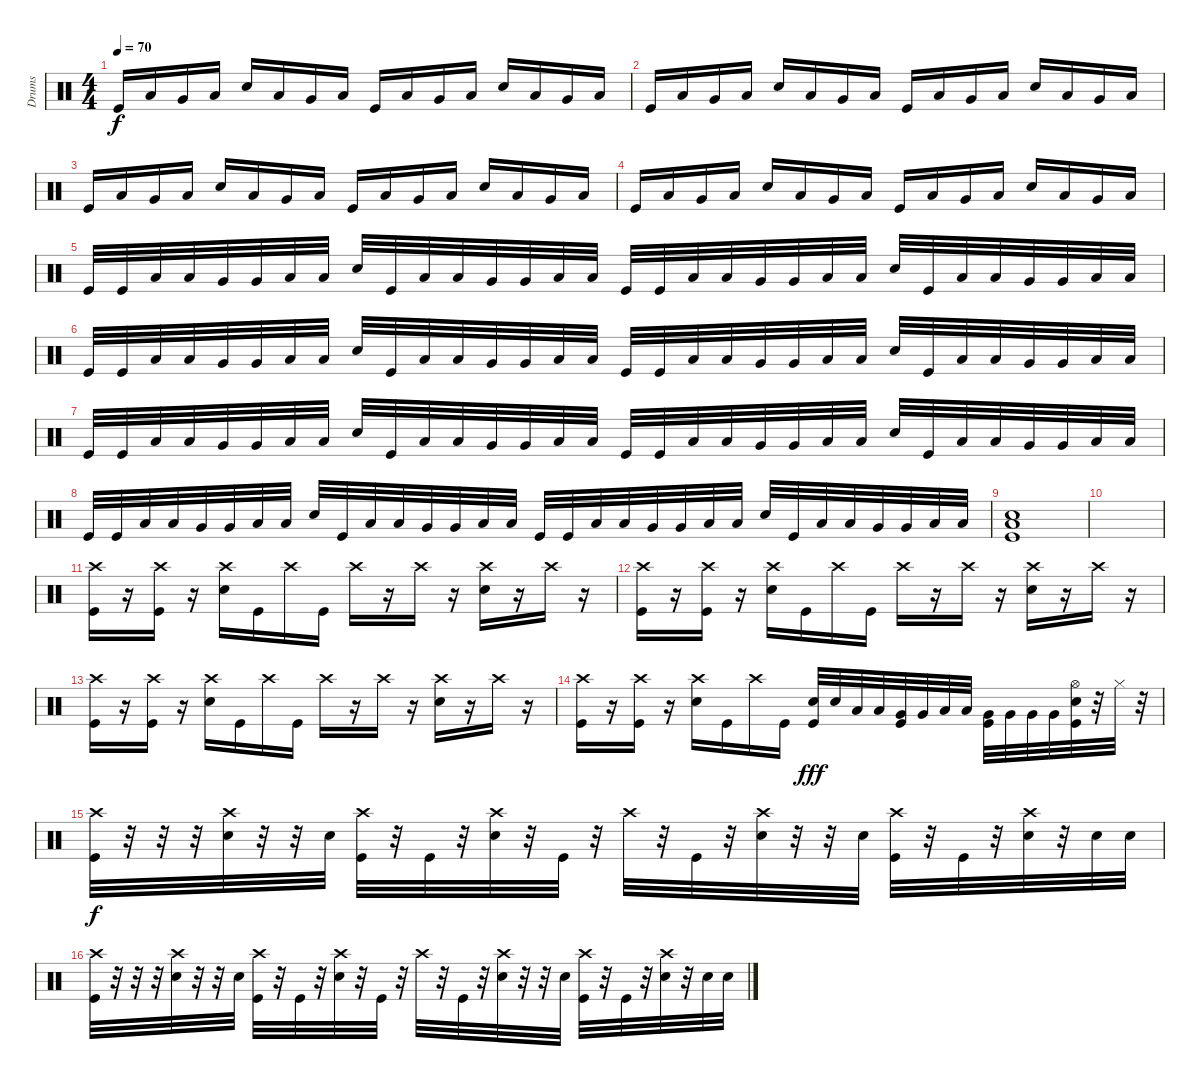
\track ("Drums" "Drums") {instrument percussion}
\staff {score}
\articulation defaults
\ts (4 4)
\tempo 70
\clef neutral
\ks c "Kick (hit)".16{dy f} "Low Tom (hit)".16 "Very Low Tom (hit)".16 "Low Floor Tom (hit)".16 "Electric Snare (hit)".16 "Low Tom (hit)".16 "Very Low Tom (hit)".16 "Low Floor Tom (hit)".16 "Kick (hit)".16 "Low Tom (hit)".16 "Very Low Tom (hit)".16 "Low Floor Tom (hit)".16 "Electric Snare (hit)".16 "Low Tom (hit)".16 "Very Low Tom (hit)".16 "Low Floor Tom (hit)".16
|
"Kick (hit)".16 "Low Tom (hit)".16 "Very Low Tom (hit)".16 "Low Floor Tom (hit)".16 "Electric Snare (hit)".16 "Low Tom (hit)".16 "Very Low Tom (hit)".16 "Low Floor Tom (hit)".16 "Kick (hit)".16 "Low Tom (hit)".16 "Very Low Tom (hit)".16 "Low Floor Tom (hit)".16 "Electric Snare (hit)".16 "Low Tom (hit)".16 "Very Low Tom (hit)".16 "Low Floor Tom (hit)".16 |
"Kick (hit)".16 "Low Tom (hit)".16 "Very Low Tom (hit)".16 "Low Floor Tom (hit)".16 "Electric Snare (hit)".16 "Low Tom (hit)".16 "Very Low Tom (hit)".16 "Low Floor Tom (hit)".16 "Kick (hit)".16 "Low Tom (hit)".16 "Very Low Tom (hit)".16 "Low Floor Tom (hit)".16 "Electric Snare (hit)".16 "Low Tom (hit)".16 "Very Low Tom (hit)".16 "Low Floor Tom (hit)".16 |
"Kick (hit)".16 "Low Tom (hit)".16 "Very Low Tom (hit)".16 "Low Floor Tom (hit)".16 "Electric Snare (hit)".16 "Low Tom (hit)".16 "Very Low Tom (hit)".16 "Low Floor Tom (hit)".16 "Kick (hit)".16 "Low Tom (hit)".16 "Very Low Tom (hit)".16 "Low Floor Tom (hit)".16 "Electric Snare (hit)".16 "Low Tom (hit)".16 "Very Low Tom (hit)".16 "Low Floor Tom (hit)".16 |
"Kick (hit)".32 "Kick (hit)".32 "Low Tom (hit)".32 "Low Tom (hit)".32 "Very Low Tom (hit)".32 "Very Low Tom (hit)".32 "Low Floor Tom (hit)".32 "Low Floor Tom (hit)".32 "Electric Snare (hit)".32 "Kick (hit)".32 "Low Tom (hit)".32 "Low Tom (hit)".32 "Very Low Tom (hit)".32 "Very Low Tom (hit)".32 "Low Floor Tom (hit)".32 "Low Floor Tom (hit)".32 "Kick (hit)".32 "Kick (hit)".32 "Low Tom (hit)".32 "Low Tom (hit)".32 "Very Low Tom (hit)".32 "Very Low Tom (hit)".32 "Low Floor Tom (hit)".32 "Low Floor Tom (hit)".32 "Electric Snare (hit)".32 "Kick (hit)".32 "Low Tom (hit)".32 "Low Tom (hit)".32 "Very Low Tom (hit)".32 "Very Low Tom (hit)".32 "Low Floor Tom (hit)".32 "Low Floor Tom (hit)".32 |
"Kick (hit)".32 "Kick (hit)".32 "Low Tom (hit)".32 "Low Tom (hit)".32 "Very Low Tom (hit)".32 "Very Low Tom (hit)".32 "Low Floor Tom (hit)".32 "Low Floor Tom (hit)".32 "Electric Snare (hit)".32 "Kick (hit)".32 "Low Tom (hit)".32 "Low Tom (hit)".32 "Very Low Tom (hit)".32 "Very Low Tom (hit)".32 "Low Floor Tom (hit)".32 "Low Floor Tom (hit)".32 "Kick (hit)".32 "Kick (hit)".32 "Low Tom (hit)".32 "Low Tom (hit)".32 "Very Low Tom (hit)".32 "Very Low Tom (hit)".32 "Low Floor Tom (hit)".32 "Low Floor Tom (hit)".32 "Electric Snare (hit)".32 "Kick (hit)".32 "Low Tom (hit)".32 "Low Tom (hit)".32 "Very Low Tom (hit)".32 "Very Low Tom (hit)".32 "Low Floor Tom (hit)".32 "Low Floor Tom (hit)".32 |
"Kick (hit)".32 "Kick (hit)".32 "Low Tom (hit)".32 "Low Tom (hit)".32 "Very Low Tom (hit)".32 "Very Low Tom (hit)".32 "Low Floor Tom (hit)".32 "Low Floor Tom (hit)".32 "Electric Snare (hit)".32 "Kick (hit)".32 "Low Tom (hit)".32 "Low Tom (hit)".32 "Very Low Tom (hit)".32 "Very Low Tom (hit)".32 "Low Floor Tom (hit)".32 "Low Floor Tom (hit)".32 "Kick (hit)".32 "Kick (hit)".32 "Low Tom (hit)".32 "Low Tom (hit)".32 "Very Low Tom (hit)".32 "Very Low Tom (hit)".32 "Low Floor Tom (hit)".32 "Low Floor Tom (hit)".32 "Electric Snare (hit)".32 "Kick (hit)".32 "Low Tom (hit)".32 "Low Tom (hit)".32 "Very Low Tom (hit)".32 "Very Low Tom (hit)".32 "Low Floor Tom (hit)".32 "Low Floor Tom (hit)".32 |
"Kick (hit)".32 "Kick (hit)".32 "Low Tom (hit)".32 "Low Tom (hit)".32 "Very Low Tom (hit)".32 "Very Low Tom (hit)".32 "Low Floor Tom (hit)".32 "Low Floor Tom (hit)".32 "Electric Snare (hit)".32 "Kick (hit)".32 "Low Tom (hit)".32 "Low Tom (hit)".32 "Very Low Tom (hit)".32 "Very Low Tom (hit)".32 "Low Floor Tom (hit)".32 "Low Floor Tom (hit)".32 "Kick (hit)".32 "Kick (hit)".32 "Low Tom (hit)".32 "Low Tom (hit)".32 "Very Low Tom (hit)".32 "Very Low Tom (hit)".32 "Low Floor Tom (hit)".32 "Low Floor Tom (hit)".32 "Electric Snare (hit)".32 "Kick (hit)".32 "Low Tom (hit)".32 "Low Tom (hit)".32 "Very Low Tom (hit)".32 "Very Low Tom (hit)".32 "Low Floor Tom (hit)".32 "Low Floor Tom (hit)".32 |
("Electric Snare (hit)" "Low Floor Tom (hit)" "Kick (hit)").1 |
|
("Crash high (hit)" "Kick (hit)").16 r.16 ("Crash high (hit)" "Kick (hit)").16 r.16 ("Crash high (hit)" "Electric Snare (hit)").16 "Kick (hit)".16 "Crash high (hit)".16 "Kick (hit)".16 "Crash high (hit)".16 r.16 "Crash high (hit)".16 r.16 ("Crash high (hit)" "Electric Snare (hit)").16 r.16 "Crash high (hit)".16 r.16 |
("Crash high (hit)" "Kick (hit)").16 r.16 ("Crash high (hit)" "Kick (hit)").16 r.16 ("Crash high (hit)" "Electric Snare (hit)").16 "Kick (hit)".16 "Crash high (hit)".16 "Kick (hit)".16 "Crash high (hit)".16 r.16 "Crash high (hit)".16 r.16 ("Crash high (hit)" "Electric Snare (hit)").16 r.16 "Crash high (hit)".16 r.16 |
("Crash high (hit)" "Kick (hit)").16 r.16 ("Crash high (hit)" "Kick (hit)").16 r.16 ("Crash high (hit)" "Electric Snare (hit)").16 "Kick (hit)".16 "Crash high (hit)".16 "Kick (hit)".16 "Crash high (hit)".16 r.16 "Crash high (hit)".16 r.16 ("Crash high (hit)" "Electric Snare (hit)").16 r.16 "Crash high (hit)".16 r.16 |
("Crash high (hit)" "Kick (hit)").16 r.16 ("Crash high (hit)" "Kick (hit)").16 r.16 ("Crash high (hit)" "Electric Snare (hit)").16 "Kick (hit)".16 "Crash high (hit)".16 "Kick (hit)".16 ("Electric Snare (hit)" "Kick (hit)").32{dy fff} "Electric Snare (hit)".32 "Low Tom (hit)".32 "Low Tom (hit)".32 ("Very Low Tom (hit)" "Kick (hit)").32 "Very Low Tom (hit)".32 "Low Tom (hit)".32 "Low Tom (hit)".32 ("Very Low Tom (hit)" "Kick (hit)").32 "Very Low Tom (hit)".32 "Very Low Tom (hit)".32 "Very Low Tom (hit)".32 ("Hi-Hat (open)" "Electric Snare (hit)" "Kick (hit)").32 r.32 "Hi-Hat (closed)".32 r.32 |
("Crash high (hit)" "Kick (hit)").32{dy f} r.32 r.32 r.32 ("Crash high (hit)" "Electric Snare (hit)").32 r.32 r.32 "Electric Snare (hit)".32 ("Crash high (hit)" "Kick (hit)").32 r.32 "Kick (hit)".32 r.32 ("Crash high (hit)" "Electric Snare (hit)").32 r.32 "Kick (hit)".32 r.32 "Crash high (hit)".32 r.32 "Kick (hit)".32 r.32 ("Crash high (hit)" "Electric Snare (hit)").32 r.32 r.32 "Electric Snare (hit)".32 ("Crash high (hit)" "Kick (hit)").32 r.32 "Kick (hit)".32 r.32 ("Crash high (hit)" "Electric Snare (hit)").32 r.32 "Electric Snare (hit)".32 "Electric Snare (hit)".32 |
("Crash high (hit)" "Kick (hit)").32 r.32 r.32 r.32 ("Crash high (hit)" "Electric Snare (hit)").32 r.32 r.32 "Electric Snare (hit)".32 ("Crash high (hit)" "Kick (hit)").32 r.32 "Kick (hit)".32 r.32 ("Crash high (hit)" "Electric Snare (hit)").32 r.32 "Kick (hit)".32 r.32 "Crash high (hit)".32 r.32 "Kick (hit)".32 r.32 ("Crash high (hit)" "Electric Snare (hit)").32 r.32 r.32 "Electric Snare (hit)".32 ("Crash high (hit)" "Kick (hit)").32 r.32 "Kick (hit)".32 r.32 ("Crash high (hit)" "Electric Snare (hit)").32 r.32 "Electric Snare (hit)".32 "Electric Snare (hit)".32
